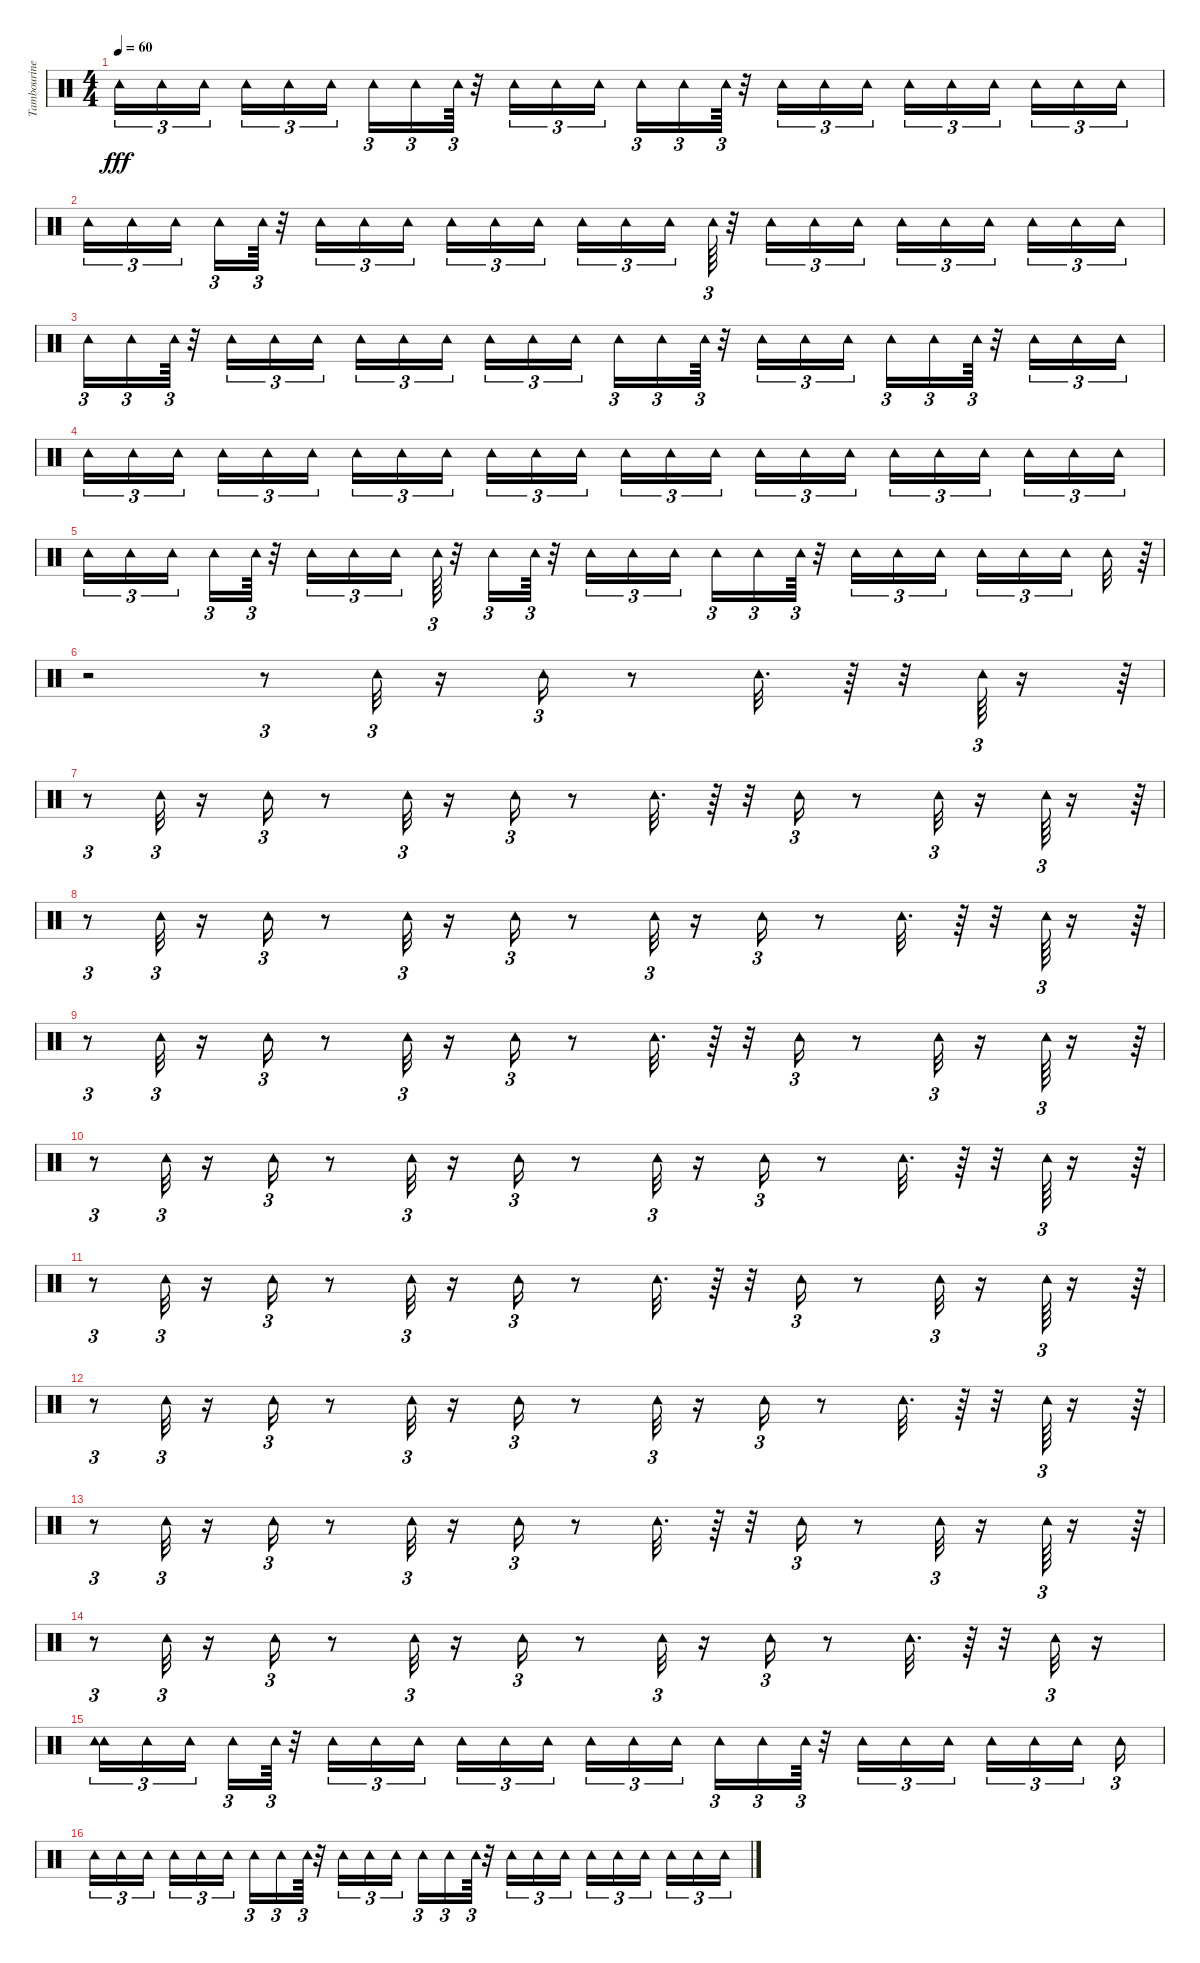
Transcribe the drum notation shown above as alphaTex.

\track ("Tambourine" "Tambourine") {instrument percussion}
\staff {score}
\articulation defaults
\ts (4 4)
\tempo 60
\clef neutral
\ks c "Tambourine (hit)".16{tu (3 2) dy fff} "Tambourine (hit)".16{tu (3 2)} "Tambourine (hit)".16{tu (3 2) beam splitsecondary} "Tambourine (hit)".16{tu (3 2)} "Tambourine (hit)".16{tu (3 2)} "Tambourine (hit)".16{tu (3 2)} "Tambourine (hit)".16{tu (3 2)} "Tambourine (hit)".16{tu (3 2)} "Tambourine (hit)".64{tu (3 2)}
r.32 "Tambourine (hit)".16{tu (3 2)} "Tambourine (hit)".16{tu (3 2)} "Tambourine (hit)".16{tu (3 2)} "Tambourine (hit)".16{tu (3 2)} "Tambourine (hit)".16{tu (3 2)} "Tambourine (hit)".64{tu (3 2)} r.32 "Tambourine (hit)".16{tu (3 2)} "Tambourine (hit)".16{tu (3 2)} "Tambourine (hit)".16{tu (3 2)} "Tambourine (hit)".16{tu (3 2)} "Tambourine (hit)".16{tu (3 2)} "Tambourine (hit)".16{tu (3 2) beam splitsecondary} "Tambourine (hit)".16{tu (3 2)} "Tambourine (hit)".16{tu (3 2)} "Tambourine (hit)".16{tu (3 2)} |
"Tambourine (hit)".16{tu (3 2)} "Tambourine (hit)".16{tu (3 2)} "Tambourine (hit)".16{tu (3 2) beam splitsecondary} "Tambourine (hit)".16{tu (3 2)} "Tambourine (hit)".64{tu (3 2)} r.32 "Tambourine (hit)".16{tu (3 2)} "Tambourine (hit)".16{tu (3 2)} "Tambourine (hit)".16{tu (3 2) beam splitsecondary} "Tambourine (hit)".16{tu (3 2)} "Tambourine (hit)".16{tu (3 2)} "Tambourine (hit)".16{tu (3 2) beam splitsecondary} "Tambourine (hit)".16{tu (3 2)} "Tambourine (hit)".16{tu (3 2)} "Tambourine (hit)".16{tu (3 2) beam splitsecondary} "Tambourine (hit)".64{tu (3 2)} r.32 "Tambourine (hit)".16{tu (3 2)} "Tambourine (hit)".16{tu (3 2)} "Tambourine (hit)".16{tu (3 2)} "Tambourine (hit)".16{tu (3 2)} "Tambourine (hit)".16{tu (3 2)} "Tambourine (hit)".16{tu (3 2) beam splitsecondary} "Tambourine (hit)".16{tu (3 2)} "Tambourine (hit)".16{tu (3 2)} "Tambourine (hit)".16{tu (3 2)} |
"Tambourine (hit)".16{tu (3 2)} "Tambourine (hit)".16{tu (3 2)} "Tambourine (hit)".64{tu (3 2)} r.32 "Tambourine (hit)".16{tu (3 2)} "Tambourine (hit)".16{tu (3 2)} "Tambourine (hit)".16{tu (3 2)} "Tambourine (hit)".16{tu (3 2)} "Tambourine (hit)".16{tu (3 2)} "Tambourine (hit)".16{tu (3 2) beam splitsecondary} "Tambourine (hit)".16{tu (3 2)} "Tambourine (hit)".16{tu (3 2)} "Tambourine (hit)".16{tu (3 2)} "Tambourine (hit)".16{tu (3 2)} "Tambourine (hit)".16{tu (3 2)} "Tambourine (hit)".64{tu (3 2)} r.32 "Tambourine (hit)".16{tu (3 2)} "Tambourine (hit)".16{tu (3 2)} "Tambourine (hit)".16{tu (3 2)} "Tambourine (hit)".16{tu (3 2)} "Tambourine (hit)".16{tu (3 2)} "Tambourine (hit)".64{tu (3 2)} r.32 "Tambourine (hit)".16{tu (3 2)} "Tambourine (hit)".16{tu (3 2)} "Tambourine (hit)".16{tu (3 2)} |
"Tambourine (hit)".16{tu (3 2)} "Tambourine (hit)".16{tu (3 2)} "Tambourine (hit)".16{tu (3 2) beam splitsecondary} "Tambourine (hit)".16{tu (3 2)} "Tambourine (hit)".16{tu (3 2)} "Tambourine (hit)".16{tu (3 2)} "Tambourine (hit)".16{tu (3 2)} "Tambourine (hit)".16{tu (3 2)} "Tambourine (hit)".16{tu (3 2) beam splitsecondary} "Tambourine (hit)".16{tu (3 2)} "Tambourine (hit)".16{tu (3 2)} "Tambourine (hit)".16{tu (3 2)} "Tambourine (hit)".16{tu (3 2)} "Tambourine (hit)".16{tu (3 2)} "Tambourine (hit)".16{tu (3 2) beam splitsecondary} "Tambourine (hit)".16{tu (3 2)} "Tambourine (hit)".16{tu (3 2)} "Tambourine (hit)".16{tu (3 2)} "Tambourine (hit)".16{tu (3 2)} "Tambourine (hit)".16{tu (3 2)} "Tambourine (hit)".16{tu (3 2) beam splitsecondary} "Tambourine (hit)".16{tu (3 2)} "Tambourine (hit)".16{tu (3 2)} "Tambourine (hit)".16{tu (3 2)} |
"Tambourine (hit)".16{tu (3 2)} "Tambourine (hit)".16{tu (3 2)} "Tambourine (hit)".16{tu (3 2) beam splitsecondary} "Tambourine (hit)".16{tu (3 2)} "Tambourine (hit)".64{tu (3 2)} r.32 "Tambourine (hit)".16{tu (3 2)} "Tambourine (hit)".16{tu (3 2)} "Tambourine (hit)".16{tu (3 2) beam splitsecondary} "Tambourine (hit)".64{tu (3 2)} r.32 "Tambourine (hit)".16{tu (3 2)} "Tambourine (hit)".64{tu (3 2)} r.32 "Tambourine (hit)".16{tu (3 2)} "Tambourine (hit)".16{tu (3 2)} "Tambourine (hit)".16{tu (3 2) beam splitsecondary} "Tambourine (hit)".16{tu (3 2)} "Tambourine (hit)".16{tu (3 2)} "Tambourine (hit)".64{tu (3 2)} r.32 "Tambourine (hit)".16{tu (3 2)} "Tambourine (hit)".16{tu (3 2)} "Tambourine (hit)".16{tu (3 2) beam splitsecondary} "Tambourine (hit)".16{tu (3 2)} "Tambourine (hit)".16{tu (3 2)} "Tambourine (hit)".16{tu (3 2) beam splitsecondary} "Tambourine (hit)".32 r.64{tu (3 2)} |
r.2 r.8{tu (3 2)} "Tambourine (hit)".32{tu (3 2)} r.16 "Tambourine (hit)".16{tu (3 2)} r.8 "Tambourine (hit)".32{d} r.64 r.32 "Tambourine (hit)".64{tu (3 2)} r.16 r.64{tu (3 2)} |
r.8{tu (3 2)} "Tambourine (hit)".32{tu (3 2)} r.16 "Tambourine (hit)".16{tu (3 2)} r.8 "Tambourine (hit)".32{tu (3 2)} r.16 "Tambourine (hit)".16{tu (3 2)} r.8 "Tambourine (hit)".32{d} r.64 r.32 "Tambourine (hit)".16{tu (3 2)} r.8 "Tambourine (hit)".32{tu (3 2)} r.16 "Tambourine (hit)".64{tu (3 2)} r.16 r.64{tu (3 2)} |
r.8{tu (3 2)} "Tambourine (hit)".32{tu (3 2)} r.16 "Tambourine (hit)".16{tu (3 2)} r.8 "Tambourine (hit)".32{tu (3 2)} r.16 "Tambourine (hit)".16{tu (3 2)} r.8 "Tambourine (hit)".32{tu (3 2)} r.16 "Tambourine (hit)".16{tu (3 2)} r.8 "Tambourine (hit)".32{d} r.64 r.32 "Tambourine (hit)".64{tu (3 2)} r.16 r.64{tu (3 2)} |
r.8{tu (3 2)} "Tambourine (hit)".32{tu (3 2)} r.16 "Tambourine (hit)".16{tu (3 2)} r.8 "Tambourine (hit)".32{tu (3 2)} r.16 "Tambourine (hit)".16{tu (3 2)} r.8 "Tambourine (hit)".32{d} r.64 r.32 "Tambourine (hit)".16{tu (3 2)} r.8 "Tambourine (hit)".32{tu (3 2)} r.16 "Tambourine (hit)".64{tu (3 2)} r.16 r.64{tu (3 2)} |
r.8{tu (3 2)} "Tambourine (hit)".32{tu (3 2)} r.16 "Tambourine (hit)".16{tu (3 2)} r.8 "Tambourine (hit)".32{tu (3 2)} r.16 "Tambourine (hit)".16{tu (3 2)} r.8 "Tambourine (hit)".32{tu (3 2)} r.16 "Tambourine (hit)".16{tu (3 2)} r.8 "Tambourine (hit)".32{d} r.64 r.32 "Tambourine (hit)".64{tu (3 2)} r.16 r.64{tu (3 2)} |
r.8{tu (3 2)} "Tambourine (hit)".32{tu (3 2)} r.16 "Tambourine (hit)".16{tu (3 2)} r.8 "Tambourine (hit)".32{tu (3 2)} r.16 "Tambourine (hit)".16{tu (3 2)} r.8 "Tambourine (hit)".32{d} r.64 r.32 "Tambourine (hit)".16{tu (3 2)} r.8 "Tambourine (hit)".32{tu (3 2)} r.16 "Tambourine (hit)".64{tu (3 2)} r.16 r.64{tu (3 2)} |
r.8{tu (3 2)} "Tambourine (hit)".32{tu (3 2)} r.16 "Tambourine (hit)".16{tu (3 2)} r.8 "Tambourine (hit)".32{tu (3 2)} r.16 "Tambourine (hit)".16{tu (3 2)} r.8 "Tambourine (hit)".32{tu (3 2)} r.16 "Tambourine (hit)".16{tu (3 2)} r.8 "Tambourine (hit)".32{d} r.64 r.32 "Tambourine (hit)".64{tu (3 2)} r.16 r.64{tu (3 2)} |
r.8{tu (3 2)} "Tambourine (hit)".32{tu (3 2)} r.16 "Tambourine (hit)".16{tu (3 2)} r.8 "Tambourine (hit)".32{tu (3 2)} r.16 "Tambourine (hit)".16{tu (3 2)} r.8 "Tambourine (hit)".32{d} r.64 r.32 "Tambourine (hit)".16{tu (3 2)} r.8 "Tambourine (hit)".32{tu (3 2)} r.16 "Tambourine (hit)".64{tu (3 2)} r.16 r.64{tu (3 2)} |
r.8{tu (3 2)} "Tambourine (hit)".32{tu (3 2)} r.16 "Tambourine (hit)".16{tu (3 2)} r.8 "Tambourine (hit)".32{tu (3 2)} r.16 "Tambourine (hit)".16{tu (3 2)} r.8 "Tambourine (hit)".32{tu (3 2)} r.16 "Tambourine (hit)".16{tu (3 2)} r.8 "Tambourine (hit)".32{d} r.64 r.32 "Tambourine (hit)".32{tu (3 2)} r.16 |
("Tambourine (hit)" "Tambourine (hit)").16{tu (3 2)} "Tambourine (hit)".16{tu (3 2)} "Tambourine (hit)".16{tu (3 2) beam splitsecondary} "Tambourine (hit)".16{tu (3 2)} "Tambourine (hit)".64{tu (3 2)} r.32 "Tambourine (hit)".16{tu (3 2)} "Tambourine (hit)".16{tu (3 2)} "Tambourine (hit)".16{tu (3 2) beam splitsecondary} "Tambourine (hit)".16{tu (3 2)} "Tambourine (hit)".16{tu (3 2)} "Tambourine (hit)".16{tu (3 2) beam splitsecondary} "Tambourine (hit)".16{tu (3 2)} "Tambourine (hit)".16{tu (3 2)} "Tambourine (hit)".16{tu (3 2) beam splitsecondary} "Tambourine (hit)".16{tu (3 2)} "Tambourine (hit)".16{tu (3 2)} "Tambourine (hit)".64{tu (3 2)} r.32 "Tambourine (hit)".16{tu (3 2)} "Tambourine (hit)".16{tu (3 2)} "Tambourine (hit)".16{tu (3 2) beam splitsecondary} "Tambourine (hit)".16{tu (3 2)} "Tambourine (hit)".16{tu (3 2)} "Tambourine (hit)".16{tu (3 2) beam splitsecondary} "Tambourine (hit)".16{tu (3 2)} |
"Tambourine (hit)".16{tu (3 2)} "Tambourine (hit)".16{tu (3 2)} "Tambourine (hit)".16{tu (3 2) beam splitsecondary} "Tambourine (hit)".16{tu (3 2)} "Tambourine (hit)".16{tu (3 2)} "Tambourine (hit)".16{tu (3 2)} "Tambourine (hit)".16{tu (3 2)} "Tambourine (hit)".16{tu (3 2)} "Tambourine (hit)".64{tu (3 2)} r.32 "Tambourine (hit)".16{tu (3 2)} "Tambourine (hit)".16{tu (3 2)} "Tambourine (hit)".16{tu (3 2)} "Tambourine (hit)".16{tu (3 2)} "Tambourine (hit)".16{tu (3 2)} "Tambourine (hit)".64{tu (3 2)} r.32 "Tambourine (hit)".16{tu (3 2)} "Tambourine (hit)".16{tu (3 2)} "Tambourine (hit)".16{tu (3 2)} "Tambourine (hit)".16{tu (3 2)} "Tambourine (hit)".16{tu (3 2)} "Tambourine (hit)".16{tu (3 2) beam splitsecondary} "Tambourine (hit)".16{tu (3 2)} "Tambourine (hit)".16{tu (3 2)} "Tambourine (hit)".16{tu (3 2)}
